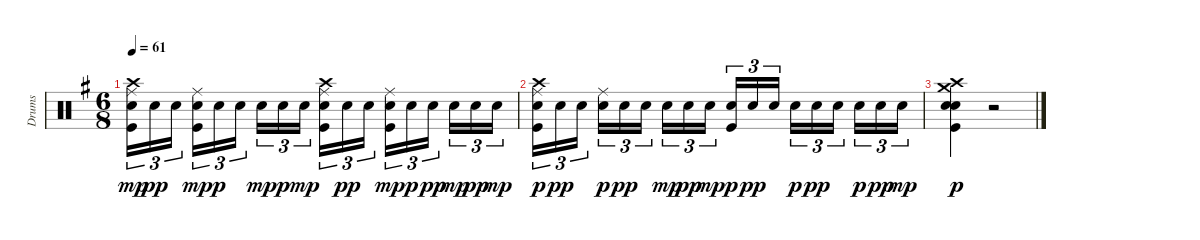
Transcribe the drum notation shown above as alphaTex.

\track ("Drums" "Drums") {instrument percussion}
\staff {score}
\articulation defaults
\ts (6 8)
\tempo 61
\clef neutral
\ks g
("Kick (hit)" "Electric Snare (hit)" "Crash high (hit)" "Ride (middle)").16{tu (3 2) dy mp} "Electric Snare (hit)".16{tu (3 2) dy pp} "Electric Snare (hit)".16{tu (3 2) beam splitsecondary} ("Kick (hit)" "Electric Snare (hit)" "Ride (middle)").16{tu (3 2) dy mp} "Electric Snare (hit)".16{tu (3 2) dy p} "Electric Snare (hit)".16{tu (3 2) beam splitsecondary} "Electric Snare (hit)".16{tu (3 2) dy mp} "Electric Snare (hit)".16{tu (3 2) dy p} "Electric Snare (hit)".16{tu (3 2) dy mp} ("Kick (hit)" "Electric Snare (hit)" "Crash high (hit)" "Ride (middle)").16{tu (3 2)} "Electric Snare (hit)".16{tu (3 2) dy pp} "Electric Snare (hit)".16{tu (3 2) beam splitsecondary} ("Kick (hit)" "Electric Snare (hit)" "Ride (middle)").16{tu (3 2) dy mp} "Electric Snare (hit)".16{tu (3 2) dy p} "Electric Snare (hit)".16{tu (3 2) dy pp beam splitsecondary} "Electric Snare (hit)".16{tu (3 2) dy mp} "Electric Snare (hit)".16{tu (3 2) dy pp} "Electric Snare (hit)".16{tu (3 2) dy mp} |
("Kick (hit)" "Electric Snare (hit)" "Crash high (hit)" "Ride (middle)").16{tu (3 2) dy p} "Electric Snare (hit)".16{tu (3 2) dy pp} "Electric Snare (hit)".16{tu (3 2) beam splitsecondary} ("Electric Snare (hit)" "Ride (middle)").16{tu (3 2) dy p} "Electric Snare (hit)".16{tu (3 2) dy pp} "Electric Snare (hit)".16{tu (3 2) beam splitsecondary} "Electric Snare (hit)".16{tu (3 2) dy mp} "Electric Snare (hit)".16{tu (3 2) dy pp} "Electric Snare (hit)".16{tu (3 2) dy mp} ("Kick (hit)" "Electric Snare (hit)").16{tu (3 2) dy p} "Electric Snare (hit)".16{tu (3 2) dy pp} "Electric Snare (hit)".16{tu (3 2) beam splitsecondary} "Electric Snare (hit)".16{tu (3 2) dy p} "Electric Snare (hit)".16{tu (3 2) dy pp} "Electric Snare (hit)".16{tu (3 2) beam splitsecondary} "Electric Snare (hit)".16{tu (3 2) dy p} "Electric Snare (hit)".16{tu (3 2) dy pp} "Electric Snare (hit)".16{tu (3 2) dy mp} |
("Kick (hit)" "Electric Snare (hit)" "Electric Snare (hit)" "Crash high (hit)" "Crash medium (hit)").4{dy p} r.2
